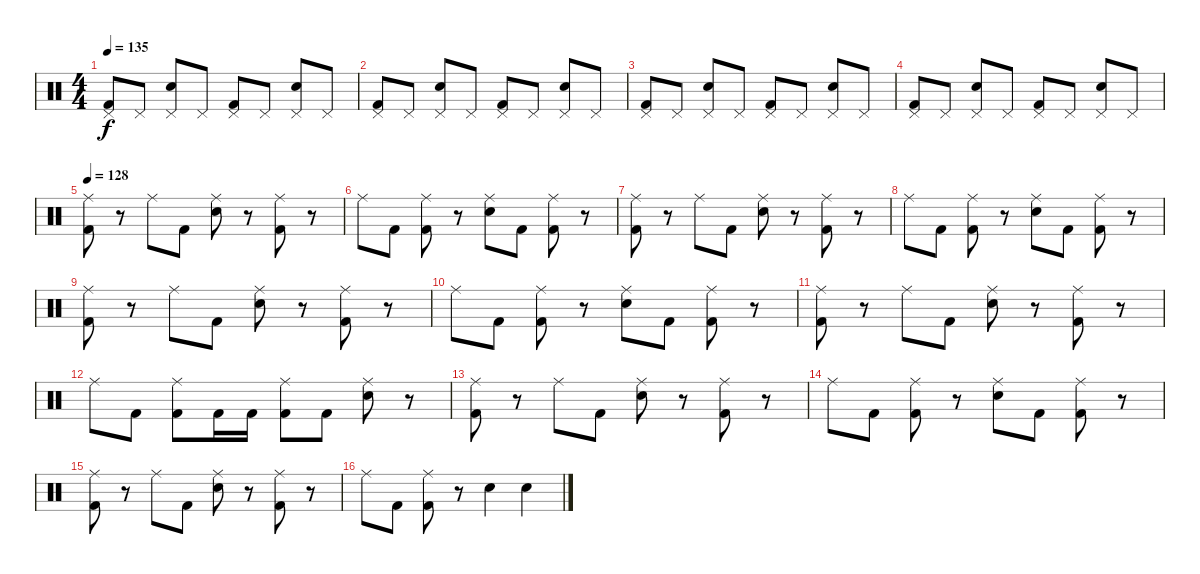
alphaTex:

\track "" {instrument percussion}
\staff {score}
\articulation defaults
\ts (4 4)
\tempo 135
\clef neutral
\ks c
("Kick (hit) 2" "Pedal Hi-Hat (hit)").8{dy f} "Pedal Hi-Hat (hit)".8 ("Electric Snare (hit)" "Pedal Hi-Hat (hit)").8 "Pedal Hi-Hat (hit)".8 ("Kick (hit) 2" "Pedal Hi-Hat (hit)").8 "Pedal Hi-Hat (hit)".8 ("Electric Snare (hit)" "Pedal Hi-Hat (hit)").8 "Pedal Hi-Hat (hit)".8 |
("Kick (hit) 2" "Pedal Hi-Hat (hit)").8 "Pedal Hi-Hat (hit)".8 ("Electric Snare (hit)" "Pedal Hi-Hat (hit)").8 "Pedal Hi-Hat (hit)".8 ("Kick (hit) 2" "Pedal Hi-Hat (hit)").8 "Pedal Hi-Hat (hit)".8 ("Electric Snare (hit)" "Pedal Hi-Hat (hit)").8 "Pedal Hi-Hat (hit)".8 |
("Kick (hit) 2" "Pedal Hi-Hat (hit)").8 "Pedal Hi-Hat (hit)".8 ("Electric Snare (hit)" "Pedal Hi-Hat (hit)").8 "Pedal Hi-Hat (hit)".8 ("Kick (hit) 2" "Pedal Hi-Hat (hit)").8 "Pedal Hi-Hat (hit)".8 ("Electric Snare (hit)" "Pedal Hi-Hat (hit)").8 "Pedal Hi-Hat (hit)".8 |
("Kick (hit) 2" "Pedal Hi-Hat (hit)").8 "Pedal Hi-Hat (hit)".8 ("Electric Snare (hit)" "Pedal Hi-Hat (hit)").8 "Pedal Hi-Hat (hit)".8 ("Kick (hit) 2" "Pedal Hi-Hat (hit)").8 "Pedal Hi-Hat (hit)".8 ("Electric Snare (hit)" "Pedal Hi-Hat (hit)").8 "Pedal Hi-Hat (hit)".8 |
\tempo 128
("Kick (hit) 2" "Ride (middle)").8 r.8 "Ride (middle)".8 "Kick (hit) 2".8 ("Electric Snare (hit)" "Ride (middle)").8 r.8 ("Kick (hit) 2" "Ride (middle)").8 r.8 |
"Ride (middle)".8 "Kick (hit) 2".8 ("Kick (hit) 2" "Ride (middle)").8 r.8 ("Electric Snare (hit)" "Ride (middle)").8 "Kick (hit) 2".8 ("Kick (hit) 2" "Ride (middle)").8 r.8 |
("Kick (hit) 2" "Ride (middle)").8 r.8 "Ride (middle)".8 "Kick (hit) 2".8 ("Electric Snare (hit)" "Ride (middle)").8 r.8 ("Kick (hit) 2" "Ride (middle)").8 r.8 |
"Ride (middle)".8 "Kick (hit) 2".8 ("Kick (hit) 2" "Ride (middle)").8 r.8 ("Electric Snare (hit)" "Ride (middle)").8 "Kick (hit) 2".8 ("Kick (hit) 2" "Ride (middle)").8 r.8 |
("Kick (hit) 2" "Ride (middle)").8 r.8 "Ride (middle)".8 "Kick (hit) 2".8 ("Electric Snare (hit)" "Ride (middle)").8 r.8 ("Kick (hit) 2" "Ride (middle)").8 r.8 |
"Ride (middle)".8 "Kick (hit) 2".8 ("Kick (hit) 2" "Ride (middle)").8 r.8 ("Electric Snare (hit)" "Ride (middle)").8 "Kick (hit) 2".8 ("Kick (hit) 2" "Ride (middle)").8 r.8 |
("Kick (hit) 2" "Ride (middle)").8 r.8 "Ride (middle)".8 "Kick (hit) 2".8 ("Electric Snare (hit)" "Ride (middle)").8 r.8 ("Kick (hit) 2" "Ride (middle)").8 r.8 |
"Ride (middle)".8 "Kick (hit) 2".8 ("Kick (hit) 2" "Ride (middle)").8 "Kick (hit) 2".16 "Kick (hit) 2".16 ("Kick (hit) 2" "Ride (middle)").8 "Kick (hit) 2".8 ("Electric Snare (hit)" "Ride (middle)").8 r.8 |
("Kick (hit) 2" "Ride (middle)").8 r.8 "Ride (middle)".8 "Kick (hit) 2".8 ("Electric Snare (hit)" "Ride (middle)").8 r.8 ("Kick (hit) 2" "Ride (middle)").8 r.8 |
"Ride (middle)".8 "Kick (hit) 2".8 ("Kick (hit) 2" "Ride (middle)").8 r.8 ("Electric Snare (hit)" "Ride (middle)").8 "Kick (hit) 2".8 ("Kick (hit) 2" "Ride (middle)").8 r.8 |
("Kick (hit) 2" "Ride (middle)").8 r.8 "Ride (middle)".8 "Kick (hit) 2".8 ("Electric Snare (hit)" "Ride (middle)").8 r.8 ("Kick (hit) 2" "Ride (middle)").8 r.8 |
"Ride (middle)".8 "Kick (hit) 2".8 ("Kick (hit) 2" "Ride (middle)").8 r.8 "Electric Snare (hit)".4 "Electric Snare (hit)".4
